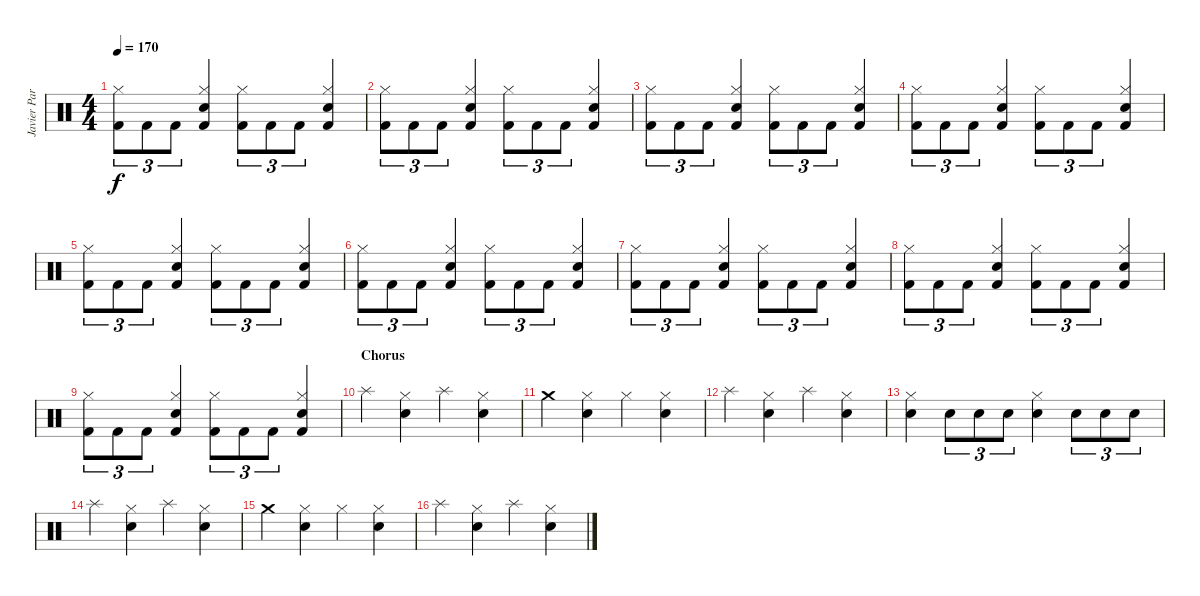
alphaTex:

\track ("Javier Partida" "Javier Par") {instrument percussion}
\staff {score}
\articulation defaults
\ts (4 4)
\tempo 170
\clef neutral
\ks c
("Kick (hit) 2" "Hi-Hat (closed)").8{tu (3 2) dy f} "Kick (hit) 2".8{tu (3 2)} "Kick (hit) 2".8{tu (3 2)} ("Kick (hit) 2" "Snare (hit) 2" "Hi-Hat (closed)").4 ("Kick (hit) 2" "Hi-Hat (closed)").8{tu (3 2)} "Kick (hit) 2".8{tu (3 2)} "Kick (hit) 2".8{tu (3 2)} ("Kick (hit) 2" "Snare (hit) 2" "Hi-Hat (closed)").4 |
("Kick (hit) 2" "Hi-Hat (closed)").8{tu (3 2)} "Kick (hit) 2".8{tu (3 2)} "Kick (hit) 2".8{tu (3 2)} ("Kick (hit) 2" "Snare (hit) 2" "Hi-Hat (closed)").4 ("Kick (hit) 2" "Hi-Hat (closed)").8{tu (3 2)} "Kick (hit) 2".8{tu (3 2)} "Kick (hit) 2".8{tu (3 2)} ("Kick (hit) 2" "Snare (hit) 2" "Hi-Hat (closed)").4 |
("Kick (hit) 2" "Hi-Hat (closed)").8{tu (3 2)} "Kick (hit) 2".8{tu (3 2)} "Kick (hit) 2".8{tu (3 2)} ("Kick (hit) 2" "Snare (hit) 2" "Hi-Hat (closed)").4 ("Kick (hit) 2" "Hi-Hat (closed)").8{tu (3 2)} "Kick (hit) 2".8{tu (3 2)} "Kick (hit) 2".8{tu (3 2)} ("Kick (hit) 2" "Snare (hit) 2" "Hi-Hat (closed)").4 |
("Kick (hit) 2" "Hi-Hat (closed)").8{tu (3 2)} "Kick (hit) 2".8{tu (3 2)} "Kick (hit) 2".8{tu (3 2)} ("Kick (hit) 2" "Snare (hit) 2" "Hi-Hat (closed)").4 ("Kick (hit) 2" "Hi-Hat (closed)").8{tu (3 2)} "Kick (hit) 2".8{tu (3 2)} "Kick (hit) 2".8{tu (3 2)} ("Kick (hit) 2" "Snare (hit) 2" "Hi-Hat (closed)").4 |
("Kick (hit) 2" "Hi-Hat (closed)").8{tu (3 2)} "Kick (hit) 2".8{tu (3 2)} "Kick (hit) 2".8{tu (3 2)} ("Kick (hit) 2" "Snare (hit) 2" "Hi-Hat (closed)").4 ("Kick (hit) 2" "Hi-Hat (closed)").8{tu (3 2)} "Kick (hit) 2".8{tu (3 2)} "Kick (hit) 2".8{tu (3 2)} ("Kick (hit) 2" "Snare (hit) 2" "Hi-Hat (closed)").4 |
("Kick (hit) 2" "Hi-Hat (closed)").8{tu (3 2)} "Kick (hit) 2".8{tu (3 2)} "Kick (hit) 2".8{tu (3 2)} ("Kick (hit) 2" "Snare (hit) 2" "Hi-Hat (closed)").4 ("Kick (hit) 2" "Hi-Hat (closed)").8{tu (3 2)} "Kick (hit) 2".8{tu (3 2)} "Kick (hit) 2".8{tu (3 2)} ("Kick (hit) 2" "Snare (hit) 2" "Hi-Hat (closed)").4 |
("Kick (hit) 2" "Hi-Hat (closed)").8{tu (3 2)} "Kick (hit) 2".8{tu (3 2)} "Kick (hit) 2".8{tu (3 2)} ("Kick (hit) 2" "Snare (hit) 2" "Hi-Hat (closed)").4 ("Kick (hit) 2" "Hi-Hat (closed)").8{tu (3 2)} "Kick (hit) 2".8{tu (3 2)} "Kick (hit) 2".8{tu (3 2)} ("Kick (hit) 2" "Snare (hit) 2" "Hi-Hat (closed)").4 |
("Kick (hit) 2" "Hi-Hat (closed)").8{tu (3 2)} "Kick (hit) 2".8{tu (3 2)} "Kick (hit) 2".8{tu (3 2)} ("Kick (hit) 2" "Snare (hit) 2" "Hi-Hat (closed)").4 ("Kick (hit) 2" "Hi-Hat (closed)").8{tu (3 2)} "Kick (hit) 2".8{tu (3 2)} "Kick (hit) 2".8{tu (3 2)} ("Kick (hit) 2" "Snare (hit) 2" "Hi-Hat (closed)").4 |
("Kick (hit) 2" "Hi-Hat (closed)").8{tu (3 2)} "Kick (hit) 2".8{tu (3 2)} "Kick (hit) 2".8{tu (3 2)} ("Kick (hit) 2" "Snare (hit) 2" "Hi-Hat (closed)").4 ("Kick (hit) 2" "Hi-Hat (closed)").8{tu (3 2)} "Kick (hit) 2".8{tu (3 2)} "Kick (hit) 2".8{tu (3 2)} ("Kick (hit) 2" "Snare (hit) 2" "Hi-Hat (closed)").4 |
\section ("" "Chorus")
"Splash (hit)".4 ("Snare (hit) 2" "Hi-Hat (closed)").4 "Splash (hit)".4 ("Snare (hit) 2" "Hi-Hat (closed)").4 |
"Crash medium (hit)".4 ("Snare (hit) 2" "Hi-Hat (closed)").4 "Hi-Hat (closed)".4 ("Snare (hit) 2" "Hi-Hat (closed)").4 |
"Splash (hit)".4 ("Snare (hit) 2" "Hi-Hat (closed)").4 "Splash (hit)".4 ("Snare (hit) 2" "Hi-Hat (closed)").4 |
("Snare (hit) 2" "Hi-Hat (closed)").4 "Snare (hit) 2".8{tu (3 2)} "Snare (hit) 2".8{tu (3 2)} "Snare (hit) 2".8{tu (3 2)} ("Snare (hit) 2" "Hi-Hat (closed)").4 "Snare (hit) 2".8{tu (3 2)} "Snare (hit) 2".8{tu (3 2)} "Snare (hit) 2".8{tu (3 2)} |
"Splash (hit)".4 ("Snare (hit) 2" "Hi-Hat (closed)").4 "Splash (hit)".4 ("Snare (hit) 2" "Hi-Hat (closed)").4 |
"Crash medium (hit)".4 ("Snare (hit) 2" "Hi-Hat (closed)").4 "Hi-Hat (closed)".4 ("Snare (hit) 2" "Hi-Hat (closed)").4 |
"Splash (hit)".4 ("Snare (hit) 2" "Hi-Hat (closed)").4 "Splash (hit)".4 ("Snare (hit) 2" "Hi-Hat (closed)").4
